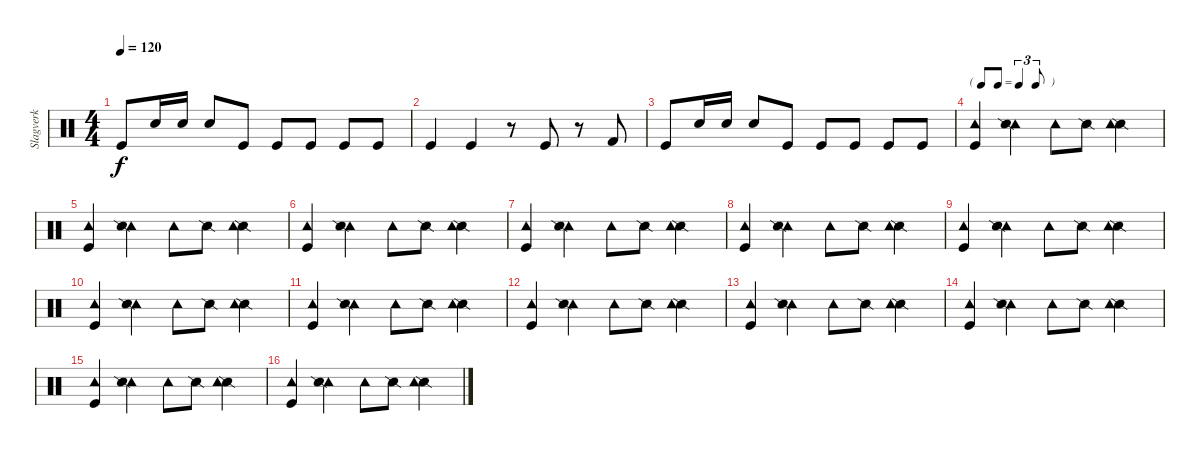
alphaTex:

\track ("Slagverk" "Slagverk") {instrument percussion}
\staff {score}
\articulation defaults
\ts (4 4)
\tempo 120
\clef neutral
\ks c "Kick (hit)".8{dy f} "Electric Snare (hit)".16 "Electric Snare (hit)".16 "Electric Snare (hit)".8 "Kick (hit)".8 "Kick (hit)".8 "Kick (hit)".8 "Kick (hit)".8 "Kick (hit)".8
|
"Kick (hit)".4 "Kick (hit)".4 r.8 "Kick (hit)".8 r.8 "Kick (hit) 2".8 |
"Kick (hit)".8 "Electric Snare (hit)".16 "Electric Snare (hit)".16 "Electric Snare (hit)".8 "Kick (hit)".8 "Kick (hit)".8 "Kick (hit)".8 "Kick (hit)".8 "Kick (hit)".8 |
\tf triplet8th
("Tambourine (hit)" "Kick (hit)").4 ("Tambourine (hit)" "Snare (side stick) 2").4 "Tambourine (hit)".8 "Snare (side stick) 2".8 ("Snare (side stick) 2" "Tambourine (hit)").4 |
("Tambourine (hit)" "Kick (hit)").4 ("Tambourine (hit)" "Snare (side stick) 2").4 "Tambourine (hit)".8 "Snare (side stick) 2".8 ("Snare (side stick) 2" "Tambourine (hit)").4 |
("Tambourine (hit)" "Kick (hit)").4 ("Tambourine (hit)" "Snare (side stick) 2").4 "Tambourine (hit)".8 "Snare (side stick) 2".8 ("Snare (side stick) 2" "Tambourine (hit)").4 |
("Tambourine (hit)" "Kick (hit)").4 ("Tambourine (hit)" "Snare (side stick) 2").4 "Tambourine (hit)".8 "Snare (side stick) 2".8 ("Snare (side stick) 2" "Tambourine (hit)").4 |
("Tambourine (hit)" "Kick (hit)").4 ("Tambourine (hit)" "Snare (side stick) 2").4 "Tambourine (hit)".8 "Snare (side stick) 2".8 ("Snare (side stick) 2" "Tambourine (hit)").4 |
("Tambourine (hit)" "Kick (hit)").4 ("Tambourine (hit)" "Snare (side stick) 2").4 "Tambourine (hit)".8 "Snare (side stick) 2".8 ("Snare (side stick) 2" "Tambourine (hit)").4 |
("Tambourine (hit)" "Kick (hit)").4 ("Tambourine (hit)" "Snare (side stick) 2").4 "Tambourine (hit)".8 "Snare (side stick) 2".8 ("Snare (side stick) 2" "Tambourine (hit)").4 |
("Tambourine (hit)" "Kick (hit)").4 ("Tambourine (hit)" "Snare (side stick) 2").4 "Tambourine (hit)".8 "Snare (side stick) 2".8 ("Snare (side stick) 2" "Tambourine (hit)").4 |
("Tambourine (hit)" "Kick (hit)").4 ("Tambourine (hit)" "Snare (side stick) 2").4 "Tambourine (hit)".8 "Snare (side stick) 2".8 ("Snare (side stick) 2" "Tambourine (hit)").4 |
("Tambourine (hit)" "Kick (hit)").4 ("Tambourine (hit)" "Snare (side stick) 2").4 "Tambourine (hit)".8 "Snare (side stick) 2".8 ("Snare (side stick) 2" "Tambourine (hit)").4 |
("Tambourine (hit)" "Kick (hit)").4 ("Tambourine (hit)" "Snare (side stick) 2").4 "Tambourine (hit)".8 "Snare (side stick) 2".8 ("Snare (side stick) 2" "Tambourine (hit)").4 |
("Tambourine (hit)" "Kick (hit)").4 ("Tambourine (hit)" "Snare (side stick) 2").4 "Tambourine (hit)".8 "Snare (side stick) 2".8 ("Snare (side stick) 2" "Tambourine (hit)").4 |
("Tambourine (hit)" "Kick (hit)").4 ("Tambourine (hit)" "Snare (side stick) 2").4 "Tambourine (hit)".8 "Snare (side stick) 2".8 ("Snare (side stick) 2" "Tambourine (hit)").4
